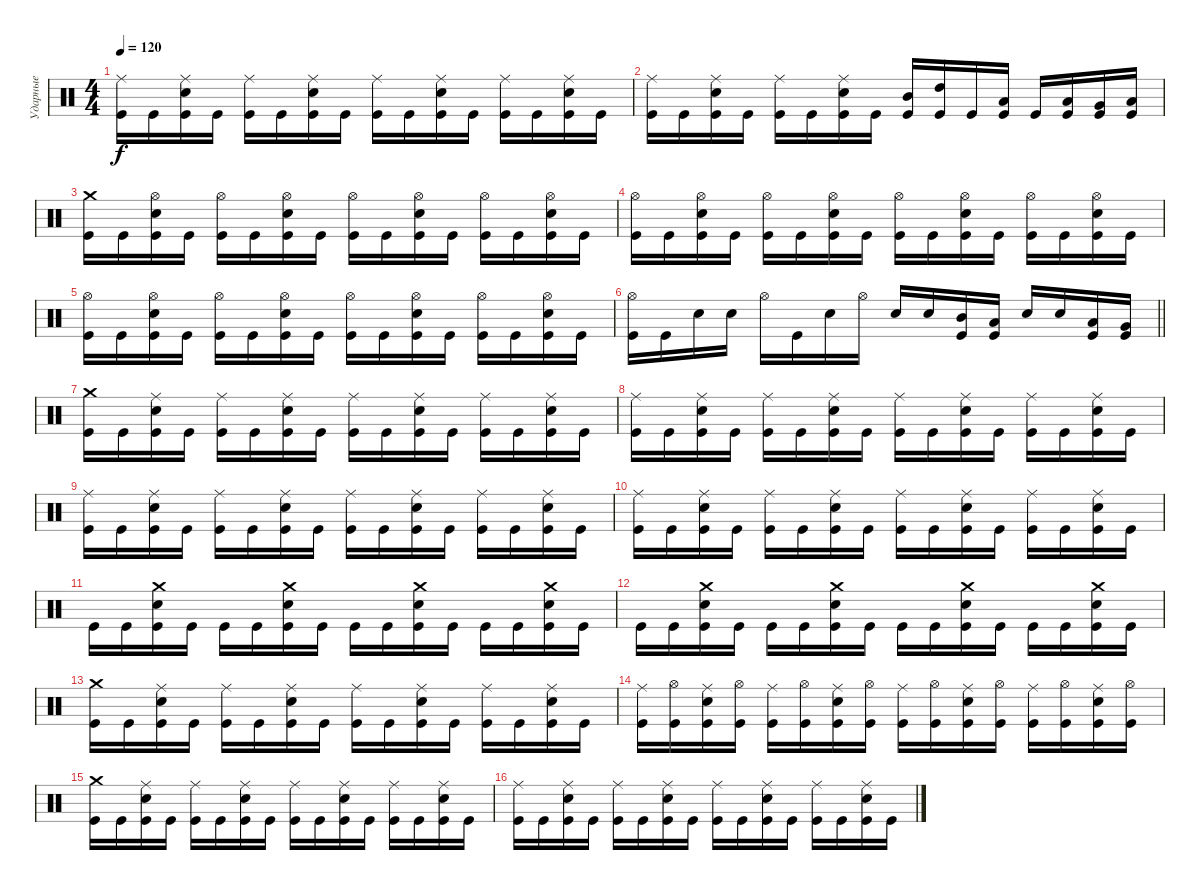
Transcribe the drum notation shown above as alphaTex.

\track ("Ударные" "Ударные") {instrument percussion}
\staff {score}
\articulation defaults
\ts (4 4)
\tempo 120
\clef neutral
\ks c
("Kick (hit)" "Ride (middle)").16{dy f} "Kick (hit)".16 ("Kick (hit)" "Snare (hit) 2" "Ride (middle)").16 "Kick (hit)".16 ("Kick (hit)" "Ride (middle)").16 "Kick (hit)".16 ("Kick (hit)" "Snare (hit) 2" "Ride (middle)").16 "Kick (hit)".16 ("Kick (hit)" "Ride (middle)").16 "Kick (hit)".16 ("Kick (hit)" "Snare (hit) 2" "Ride (middle)").16 "Kick (hit)".16 ("Kick (hit)" "Ride (middle)").16 "Kick (hit)".16 ("Kick (hit)" "Snare (hit) 2" "Ride (middle)").16 "Kick (hit)".16 |
("Kick (hit)" "Ride (middle)").16 "Kick (hit)".16 ("Kick (hit)" "Snare (hit) 2" "Ride (middle)").16 "Kick (hit)".16 ("Kick (hit)" "Ride (middle)").16 "Kick (hit)".16 ("Kick (hit)" "Snare (hit) 2" "Ride (middle)").16 "Kick (hit)".16 ("Kick (hit)" "Mid Tom (hit)").16 ("Kick (hit)" "High Tom (hit)").16 "Kick (hit)".16 ("Kick (hit)" "Low Tom (hit)").16 "Kick (hit)".16 ("Kick (hit)" "Low Tom (hit)").16 ("Kick (hit)" "Very Low Tom (hit)").16 ("Kick (hit)" "Low Floor Tom (hit)").16 |
("Kick (hit)" "Crash medium (hit)").16 "Kick (hit)".16 ("Kick (hit)" "Snare (hit) 2" "Hi-Hat (open)").16 "Kick (hit)".16 ("Kick (hit)" "Hi-Hat (open)").16 "Kick (hit)".16 ("Kick (hit)" "Snare (hit) 2" "Hi-Hat (open)").16 "Kick (hit)".16 ("Kick (hit)" "Hi-Hat (open)").16 "Kick (hit)".16 ("Kick (hit)" "Snare (hit) 2" "Hi-Hat (open)").16 "Kick (hit)".16 ("Kick (hit)" "Hi-Hat (open)").16 "Kick (hit)".16 ("Kick (hit)" "Snare (hit) 2" "Hi-Hat (open)").16 "Kick (hit)".16 |
("Kick (hit)" "Hi-Hat (open)").16 "Kick (hit)".16 ("Kick (hit)" "Snare (hit) 2" "Hi-Hat (open)").16 "Kick (hit)".16 ("Kick (hit)" "Hi-Hat (open)").16 "Kick (hit)".16 ("Kick (hit)" "Snare (hit) 2" "Hi-Hat (open)").16 "Kick (hit)".16 ("Kick (hit)" "Hi-Hat (open)").16 "Kick (hit)".16 ("Kick (hit)" "Snare (hit) 2" "Hi-Hat (open)").16 "Kick (hit)".16 ("Kick (hit)" "Hi-Hat (open)").16 "Kick (hit)".16 ("Kick (hit)" "Snare (hit) 2" "Hi-Hat (open)").16 "Kick (hit)".16 |
("Kick (hit)" "Hi-Hat (open)").16 "Kick (hit)".16 ("Kick (hit)" "Snare (hit) 2" "Hi-Hat (open)").16 "Kick (hit)".16 ("Kick (hit)" "Hi-Hat (open)").16 "Kick (hit)".16 ("Kick (hit)" "Snare (hit) 2" "Hi-Hat (open)").16 "Kick (hit)".16 ("Kick (hit)" "Hi-Hat (open)").16 "Kick (hit)".16 ("Kick (hit)" "Snare (hit) 2" "Hi-Hat (open)").16 "Kick (hit)".16 ("Kick (hit)" "Hi-Hat (open)").16 "Kick (hit)".16 ("Kick (hit)" "Snare (hit) 2" "Hi-Hat (open)").16 "Kick (hit)".16 |
\barLineRight lightlight
("Kick (hit)" "Hi-Hat (open)").16 "Kick (hit)".16 "Snare (hit) 2".16 "Snare (hit) 2".16 "Hi-Hat (open)".16 "Kick (hit)".16 "Snare (hit) 2".16 "Hi-Hat (open)".16 "Snare (hit) 2".16 "Snare (hit) 2".16 ("Kick (hit)" "Mid Tom (hit)").16 ("Kick (hit)" "Low Tom (hit)").16 "Snare (hit) 2".16 "Snare (hit) 2".16 ("Kick (hit)" "Low Tom (hit)").16 ("Kick (hit)" "Very Low Tom (hit)").16 |
("Kick (hit)" "Crash medium (hit)").16 "Kick (hit)".16 ("Kick (hit)" "Snare (hit) 2" "Ride (middle)").16 "Kick (hit)".16 ("Kick (hit)" "Ride (middle)").16 "Kick (hit)".16 ("Kick (hit)" "Snare (hit) 2" "Ride (middle)").16 "Kick (hit)".16 ("Kick (hit)" "Ride (middle)").16 "Kick (hit)".16 ("Kick (hit)" "Snare (hit) 2" "Ride (middle)").16 "Kick (hit)".16 ("Kick (hit)" "Ride (middle)").16 "Kick (hit)".16 ("Kick (hit)" "Snare (hit) 2" "Ride (middle)").16 "Kick (hit)".16 |
("Kick (hit)" "Ride (middle)").16 "Kick (hit)".16 ("Kick (hit)" "Snare (hit) 2" "Ride (middle)").16 "Kick (hit)".16 ("Kick (hit)" "Ride (middle)").16 "Kick (hit)".16 ("Kick (hit)" "Snare (hit) 2" "Ride (middle)").16 "Kick (hit)".16 ("Kick (hit)" "Ride (middle)").16 "Kick (hit)".16 ("Kick (hit)" "Snare (hit) 2" "Ride (middle)").16 "Kick (hit)".16 ("Kick (hit)" "Ride (middle)").16 "Kick (hit)".16 ("Kick (hit)" "Snare (hit) 2" "Ride (middle)").16 "Kick (hit)".16 |
("Kick (hit)" "Ride (middle)").16 "Kick (hit)".16 ("Kick (hit)" "Snare (hit) 2" "Ride (middle)").16 "Kick (hit)".16 ("Kick (hit)" "Ride (middle)").16 "Kick (hit)".16 ("Kick (hit)" "Snare (hit) 2" "Ride (middle)").16 "Kick (hit)".16 ("Kick (hit)" "Ride (middle)").16 "Kick (hit)".16 ("Kick (hit)" "Snare (hit) 2" "Ride (middle)").16 "Kick (hit)".16 ("Kick (hit)" "Ride (middle)").16 "Kick (hit)".16 ("Kick (hit)" "Snare (hit) 2" "Ride (middle)").16 "Kick (hit)".16 |
("Kick (hit)" "Ride (middle)").16 "Kick (hit)".16 ("Kick (hit)" "Snare (hit) 2" "Ride (middle)").16 "Kick (hit)".16 ("Kick (hit)" "Ride (middle)").16 "Kick (hit)".16 ("Kick (hit)" "Snare (hit) 2" "Ride (middle)").16 "Kick (hit)".16 ("Kick (hit)" "Ride (middle)").16 "Kick (hit)".16 ("Kick (hit)" "Snare (hit) 2" "Ride (middle)").16 "Kick (hit)".16 ("Kick (hit)" "Ride (middle)").16 "Kick (hit)".16 ("Kick (hit)" "Snare (hit) 2" "Ride (middle)").16 "Kick (hit)".16 |
"Kick (hit)".16 "Kick (hit)".16 ("Kick (hit)" "Snare (hit) 2" "Crash medium (hit)").16 "Kick (hit)".16 "Kick (hit)".16 "Kick (hit)".16 ("Kick (hit)" "Snare (hit) 2" "Crash medium (hit)").16 "Kick (hit)".16 "Kick (hit)".16 "Kick (hit)".16 ("Kick (hit)" "Snare (hit) 2" "Crash medium (hit)").16 "Kick (hit)".16 "Kick (hit)".16 "Kick (hit)".16 ("Kick (hit)" "Snare (hit) 2" "Crash medium (hit)").16 "Kick (hit)".16 |
"Kick (hit)".16 "Kick (hit)".16 ("Kick (hit)" "Snare (hit) 2" "Crash medium (hit)").16 "Kick (hit)".16 "Kick (hit)".16 "Kick (hit)".16 ("Kick (hit)" "Snare (hit) 2" "Crash medium (hit)").16 "Kick (hit)".16 "Kick (hit)".16 "Kick (hit)".16 ("Kick (hit)" "Snare (hit) 2" "Crash medium (hit)").16 "Kick (hit)".16 "Kick (hit)".16 "Kick (hit)".16 ("Kick (hit)" "Snare (hit) 2" "Crash medium (hit)").16 "Kick (hit)".16 |
("Kick (hit)" "Crash medium (hit)").16 "Kick (hit)".16 ("Kick (hit)" "Snare (hit) 2" "Ride (middle)").16 "Kick (hit)".16 ("Kick (hit)" "Ride (middle)").16 "Kick (hit)".16 ("Kick (hit)" "Snare (hit) 2" "Ride (middle)").16 "Kick (hit)".16 ("Kick (hit)" "Ride (middle)").16 "Kick (hit)".16 ("Kick (hit)" "Snare (hit) 2" "Ride (middle)").16 "Kick (hit)".16 ("Kick (hit)" "Ride (middle)").16 "Kick (hit)".16 ("Kick (hit)" "Snare (hit) 2" "Ride (middle)").16 "Kick (hit)".16 |
("Kick (hit)" "Ride (middle)").16 ("Kick (hit)" "Hi-Hat (open)").16 ("Kick (hit)" "Snare (hit) 2" "Ride (middle)").16 ("Kick (hit)" "Hi-Hat (open)").16 ("Kick (hit)" "Ride (middle)").16 ("Kick (hit)" "Hi-Hat (open)").16 ("Kick (hit)" "Snare (hit) 2" "Ride (middle)").16 ("Kick (hit)" "Hi-Hat (open)").16 ("Kick (hit)" "Ride (middle)").16 ("Kick (hit)" "Hi-Hat (open)").16 ("Kick (hit)" "Snare (hit) 2" "Ride (middle)").16 ("Kick (hit)" "Hi-Hat (open)").16 ("Kick (hit)" "Ride (middle)").16 ("Kick (hit)" "Hi-Hat (open)").16 ("Kick (hit)" "Snare (hit) 2" "Ride (middle)").16 ("Kick (hit)" "Hi-Hat (open)").16 |
("Kick (hit)" "Crash medium (hit)").16 "Kick (hit)".16 ("Kick (hit)" "Snare (hit) 2" "Ride (middle)").16 "Kick (hit)".16 ("Kick (hit)" "Ride (middle)").16 "Kick (hit)".16 ("Kick (hit)" "Snare (hit) 2" "Ride (middle)").16 "Kick (hit)".16 ("Kick (hit)" "Ride (middle)").16 "Kick (hit)".16 ("Kick (hit)" "Snare (hit) 2" "Ride (middle)").16 "Kick (hit)".16 ("Kick (hit)" "Ride (middle)").16 "Kick (hit)".16 ("Kick (hit)" "Snare (hit) 2" "Ride (middle)").16 "Kick (hit)".16 |
("Kick (hit)" "Ride (middle)").16 "Kick (hit)".16 ("Kick (hit)" "Snare (hit) 2" "Ride (middle)").16 "Kick (hit)".16 ("Kick (hit)" "Ride (middle)").16 "Kick (hit)".16 ("Kick (hit)" "Snare (hit) 2" "Ride (middle)").16 "Kick (hit)".16 ("Kick (hit)" "Ride (middle)").16 "Kick (hit)".16 ("Kick (hit)" "Snare (hit) 2" "Ride (middle)").16 "Kick (hit)".16 ("Kick (hit)" "Ride (middle)").16 "Kick (hit)".16 ("Kick (hit)" "Snare (hit) 2" "Ride (middle)").16 "Kick (hit)".16
